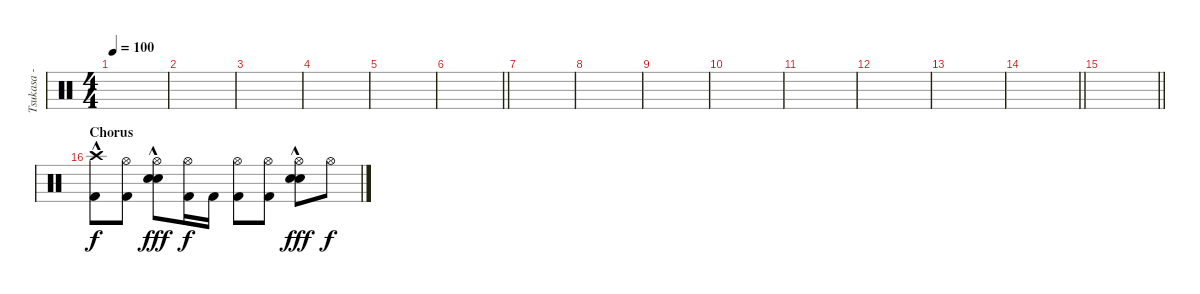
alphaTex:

\track ("Tsukasa - Drums" "Tsukasa - ") {instrument percussion}
\staff {score}
\articulation defaults
\ts (4 4)
\tempo 100
\clef neutral
\ks c
|
|
|
|
|
\barLineRight lightlight
|
\section ("" "")
|
|
|
|
|
|
|
\barLineRight lightlight
|
\barLineRight lightlight
|
\section ("" "Chorus")
("Crash high (hit)"{hac} "Kick (hit) 2").8{volume 13} ("Hi-Hat (open)" "Kick (hit) 2").8{dy f} ("Hi-Hat (open)" "Electric Snare (hit)"{hac} "Snare (hit) 2"{hac}).8{dy fff} ("Hi-Hat (open)" "Kick (hit) 2").16{dy f} "Kick (hit) 2".16 ("Hi-Hat (open)" "Kick (hit) 2").8 ("Hi-Hat (open)" "Kick (hit) 2").8 ("Hi-Hat (open)" "Electric Snare (hit)"{hac} "Snare (hit) 2"{hac}).8{dy fff} "Hi-Hat (open)".8{dy f}
